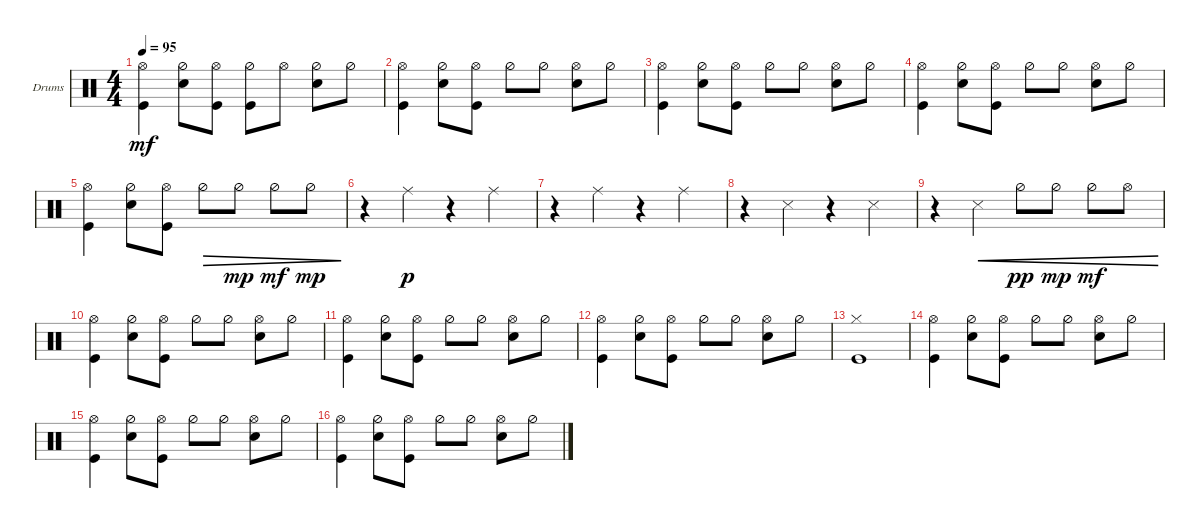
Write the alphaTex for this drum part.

\defaultSystemsLayout 4
\bracketExtendMode groupsimilarinstruments
\firstSystemTrackNameOrientation horizontal
\otherSystemsTrackNameOrientation horizontal
\track ("Drums" "Drums") {instrument percussion}
\staff {score}
\articulation defaults
\ts (4 4)
\tempo 95
\clef neutral
\ks c
("Kick (hit)" "Hi-Hat (open)").4{dy mf} ("Snare (hit) 2" "Hi-Hat (half)").8 ("Kick (hit)" "Hi-Hat (open)").8 ("Kick (hit)" "Hi-Hat (half)").8 "Hi-Hat (open)".8 ("Snare (hit) 2" "Hi-Hat (half)").8 "Hi-Hat (half)".8 |
("Kick (hit)" "Hi-Hat (open)").4 ("Snare (hit) 2" "Hi-Hat (half)").8 ("Kick (hit)" "Hi-Hat (open)").8 "Hi-Hat (half)".8 "Hi-Hat (half)".8 ("Snare (hit) 2" "Hi-Hat (open)").8 "Hi-Hat (half)".8 |
("Kick (hit)" "Hi-Hat (open)").4 ("Snare (hit) 2" "Hi-Hat (half)").8 ("Kick (hit)" "Hi-Hat (open)").8 "Hi-Hat (half)".8 "Hi-Hat (half)".8 ("Snare (hit) 2" "Hi-Hat (open)").8 "Hi-Hat (half)".8 |
("Kick (hit)" "Hi-Hat (open)").4 ("Snare (hit) 2" "Hi-Hat (half)").8 ("Kick (hit)" "Hi-Hat (open)").8 "Hi-Hat (half)".8 "Hi-Hat (half)".8 ("Snare (hit) 2" "Hi-Hat (open)").8 "Hi-Hat (half)".8 |
("Kick (hit)" "Hi-Hat (open)").4 ("Snare (hit) 2" "Hi-Hat (half)").8 ("Kick (hit)" "Hi-Hat (open)").8 "Hi-Hat (half)".8{dec} "Hi-Hat (half)".8{dec dy mp} "Hi-Hat (half)".8{dec dy mf} "Hi-Hat (half)".8{dec dy mp} |
r.4 "Ride (middle)".4{dy p} r.4 "Ride (middle)".4 |
r.4 "Ride (middle)".4 r.4 "Ride (middle)".4 |
r.4 "Snare (side stick) 3".4 r.4 "Snare (side stick) 3".4 |
r.4 "Snare (side stick) 3".4{cre} "Hi-Hat (half)".8{cre dy pp} "Hi-Hat (half)".8{cre dy mp} "Hi-Hat (half)".8{cre dy mf} "Hi-Hat (open)".8{cre} |
("Kick (hit)" "Hi-Hat (open)").4 ("Snare (hit) 2" "Hi-Hat (half)").8 ("Kick (hit)" "Hi-Hat (open)").8 "Hi-Hat (half)".8 "Hi-Hat (half)".8 ("Snare (hit) 2" "Hi-Hat (open)").8 "Hi-Hat (half)".8 |
("Kick (hit)" "Hi-Hat (open)").4 ("Snare (hit) 2" "Hi-Hat (half)").8 ("Kick (hit)" "Hi-Hat (open)").8 "Hi-Hat (half)".8 "Hi-Hat (half)".8 ("Snare (hit) 2" "Hi-Hat (open)").8 "Hi-Hat (half)".8 |
("Kick (hit)" "Hi-Hat (open)").4 ("Snare (hit) 2" "Hi-Hat (half)").8 ("Kick (hit)" "Hi-Hat (open)").8 "Hi-Hat (half)".8 "Hi-Hat (half)".8 ("Snare (hit) 2" "Hi-Hat (open)").8 "Hi-Hat (half)".8 |
("Kick (hit)" "Hi-Hat (closed)").1 |
("Kick (hit)" "Hi-Hat (open)").4 ("Snare (hit) 2" "Hi-Hat (half)").8 ("Kick (hit)" "Hi-Hat (open)").8 "Hi-Hat (half)".8 "Hi-Hat (half)".8 ("Snare (hit) 2" "Hi-Hat (open)").8 "Hi-Hat (half)".8 |
("Kick (hit)" "Hi-Hat (open)").4 ("Snare (hit) 2" "Hi-Hat (half)").8 ("Kick (hit)" "Hi-Hat (open)").8 "Hi-Hat (half)".8 "Hi-Hat (half)".8 ("Snare (hit) 2" "Hi-Hat (open)").8 "Hi-Hat (half)".8 |
("Kick (hit)" "Hi-Hat (open)").4 ("Snare (hit) 2" "Hi-Hat (half)").8 ("Kick (hit)" "Hi-Hat (open)").8 "Hi-Hat (half)".8 "Hi-Hat (half)".8 ("Snare (hit) 2" "Hi-Hat (open)").8 "Hi-Hat (half)".8
